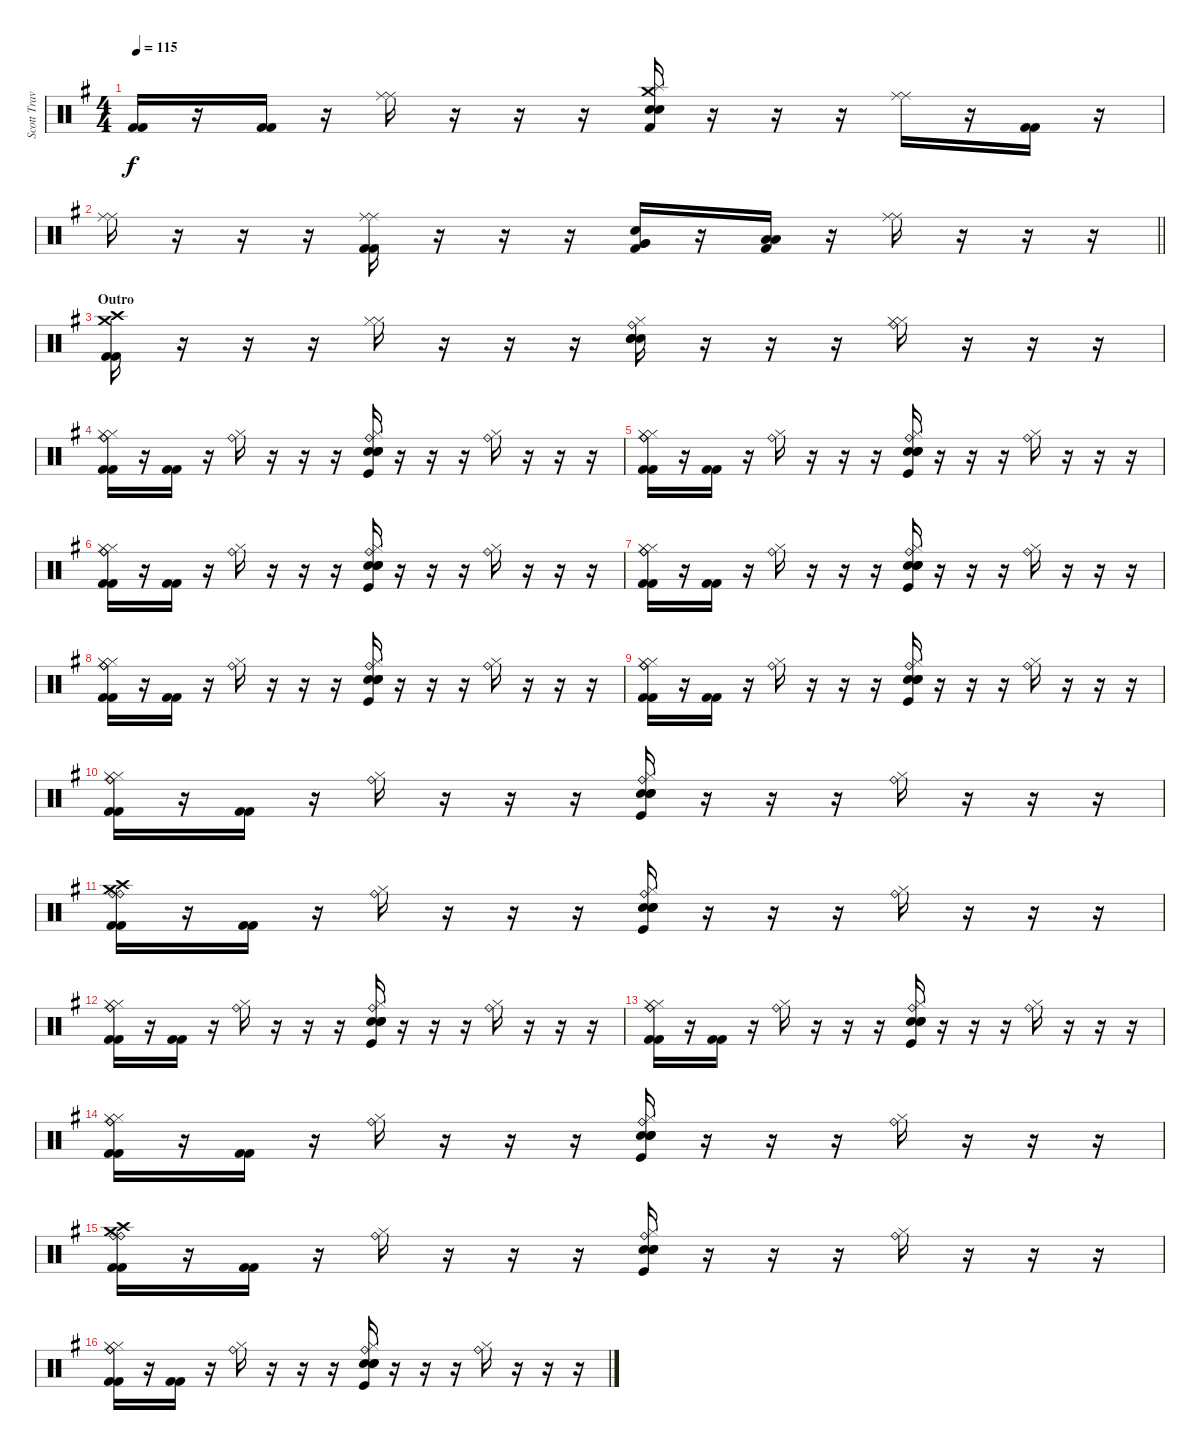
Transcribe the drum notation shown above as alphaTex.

\track ("Scott Travis" "Scott Trav") {instrument percussion}
\staff {score}
\articulation defaults
\ts (4 4)
\tempo 115
\clef neutral
\ks eminor
("Kick (hit) 2" "Kick (hit) 2").16{dy f} r.16 ("Kick (hit) 2" "Kick (hit) 2").16 r.16 ("Ride (middle)" "Ride (middle)").16 r.16 r.16 r.16 ("Crash medium (hit)" "Splash (hit)" "Snare (hit) 2" "Snare (hit) 2" "Kick (hit) 2").16 r.16 r.16 r.16 ("Ride (middle)" "Ride (middle)").16 r.16 ("Kick (hit) 2" "Kick (hit) 2").16 r.16 |
\barLineRight lightlight
("Ride (middle)" "Ride (middle)").16 r.16 r.16 r.16 ("Ride (middle)" "Ride (middle)" "Kick (hit) 2" "Kick (hit) 2").16 r.16 r.16 r.16 ("Snare (hit) 2" "Very Low Tom (hit)" "Very Low Tom (hit)" "Kick (hit) 2").16 r.16 ("Low Floor Tom (hit)" "Low Floor Tom (hit)" "Kick (hit) 2").16 r.16 ("Ride (middle)" "Ride (middle)").16 r.16 r.16 r.16 |
\section ("" "Outro")
("Crash medium (hit)" "Crash high (hit)" "Kick (hit) 2" "Kick (hit) 2").16 r.16 r.16 r.16 ("Hi-Hat (closed)" "Hi-Hat (closed)").16 r.16 r.16 r.16 ("Ride (bell)" "Hi-Hat (closed)" "Snare (hit) 2" "Snare (hit) 2" "Snare (hit) 2").16 r.16 r.16 r.16 ("Hi-Hat (closed)" "Hi-Hat (closed)" "Ride (bell)").16 r.16 r.16 r.16 |
("Hi-Hat (closed)" "Hi-Hat (closed)" "Ride (bell)" "Ride (bell)" "Kick (hit) 2" "Kick (hit) 2").16 r.16 ("Kick (hit) 2" "Kick (hit) 2").16 r.16 ("Hi-Hat (closed)" "Ride (bell)").16 r.16 r.16 r.16 ("Hi-Hat (closed)" "Ride (bell)" "Snare (hit) 2" "Snare (hit) 2" "Snare (hit) 2" "Kick (hit)").16 r.16 r.16 r.16 ("Hi-Hat (closed)" "Ride (bell)").16 r.16 r.16 r.16 |
("Hi-Hat (closed)" "Hi-Hat (closed)" "Ride (bell)" "Ride (bell)" "Kick (hit) 2" "Kick (hit) 2").16 r.16 ("Kick (hit) 2" "Kick (hit) 2").16 r.16 ("Hi-Hat (closed)" "Ride (bell)").16 r.16 r.16 r.16 ("Hi-Hat (closed)" "Ride (bell)" "Snare (hit) 2" "Snare (hit) 2" "Snare (hit) 2" "Kick (hit)").16 r.16 r.16 r.16 ("Hi-Hat (closed)" "Ride (bell)").16 r.16 r.16 r.16 |
("Hi-Hat (closed)" "Hi-Hat (closed)" "Ride (bell)" "Ride (bell)" "Kick (hit) 2" "Kick (hit) 2").16 r.16 ("Kick (hit) 2" "Kick (hit) 2").16 r.16 ("Hi-Hat (closed)" "Ride (bell)").16 r.16 r.16 r.16 ("Hi-Hat (closed)" "Ride (bell)" "Snare (hit) 2" "Snare (hit) 2" "Snare (hit) 2" "Kick (hit)").16 r.16 r.16 r.16 ("Hi-Hat (closed)" "Ride (bell)").16 r.16 r.16 r.16 |
("Hi-Hat (closed)" "Hi-Hat (closed)" "Ride (bell)" "Ride (bell)" "Kick (hit) 2" "Kick (hit) 2").16 r.16 ("Kick (hit) 2" "Kick (hit) 2").16 r.16 ("Hi-Hat (closed)" "Ride (bell)").16 r.16 r.16 r.16 ("Hi-Hat (closed)" "Ride (bell)" "Snare (hit) 2" "Snare (hit) 2" "Snare (hit) 2" "Kick (hit)").16 r.16 r.16 r.16 ("Hi-Hat (closed)" "Ride (bell)").16 r.16 r.16 r.16 |
("Hi-Hat (closed)" "Hi-Hat (closed)" "Ride (bell)" "Ride (bell)" "Kick (hit) 2" "Kick (hit) 2").16 r.16 ("Kick (hit) 2" "Kick (hit) 2").16 r.16 ("Hi-Hat (closed)" "Ride (bell)").16 r.16 r.16 r.16 ("Hi-Hat (closed)" "Ride (bell)" "Snare (hit) 2" "Snare (hit) 2" "Snare (hit) 2" "Kick (hit)").16 r.16 r.16 r.16 ("Hi-Hat (closed)" "Ride (bell)").16 r.16 r.16 r.16 |
("Hi-Hat (closed)" "Hi-Hat (closed)" "Ride (bell)" "Ride (bell)" "Kick (hit) 2" "Kick (hit) 2").16 r.16 ("Kick (hit) 2" "Kick (hit) 2").16 r.16 ("Hi-Hat (closed)" "Ride (bell)").16 r.16 r.16 r.16 ("Hi-Hat (closed)" "Ride (bell)" "Snare (hit) 2" "Snare (hit) 2" "Snare (hit) 2" "Kick (hit)").16 r.16 r.16 r.16 ("Hi-Hat (closed)" "Ride (bell)").16 r.16 r.16 r.16 |
("Hi-Hat (closed)" "Hi-Hat (closed)" "Ride (bell)" "Ride (bell)" "Kick (hit) 2" "Kick (hit) 2").16 r.16 ("Kick (hit) 2" "Kick (hit) 2").16 r.16 ("Hi-Hat (closed)" "Ride (bell)").16 r.16 r.16 r.16 ("Hi-Hat (closed)" "Ride (bell)" "Snare (hit) 2" "Snare (hit) 2" "Snare (hit) 2" "Kick (hit)").16 r.16 r.16 r.16 ("Hi-Hat (closed)" "Ride (bell)").16 r.16 r.16 r.16 |
("Crash medium (hit)" "Crash high (hit)" "Ride (bell)" "Ride (bell)" "Kick (hit) 2" "Kick (hit) 2").16 r.16 ("Kick (hit) 2" "Kick (hit) 2").16 r.16 ("Hi-Hat (closed)" "Ride (bell)").16 r.16 r.16 r.16 ("Hi-Hat (closed)" "Ride (bell)" "Snare (hit) 2" "Snare (hit) 2" "Snare (hit) 2" "Kick (hit)").16 r.16 r.16 r.16 ("Hi-Hat (closed)" "Ride (bell)").16 r.16 r.16 r.16 |
("Hi-Hat (closed)" "Hi-Hat (closed)" "Ride (bell)" "Ride (bell)" "Kick (hit) 2" "Kick (hit) 2").16 r.16 ("Kick (hit) 2" "Kick (hit) 2").16 r.16 ("Hi-Hat (closed)" "Ride (bell)").16 r.16 r.16 r.16 ("Hi-Hat (closed)" "Ride (bell)" "Snare (hit) 2" "Snare (hit) 2" "Snare (hit) 2" "Kick (hit)").16 r.16 r.16 r.16 ("Hi-Hat (closed)" "Ride (bell)").16 r.16 r.16 r.16 |
("Hi-Hat (closed)" "Hi-Hat (closed)" "Ride (bell)" "Ride (bell)" "Kick (hit) 2" "Kick (hit) 2").16 r.16 ("Kick (hit) 2" "Kick (hit) 2").16 r.16 ("Hi-Hat (closed)" "Ride (bell)").16 r.16 r.16 r.16 ("Hi-Hat (closed)" "Ride (bell)" "Snare (hit) 2" "Snare (hit) 2" "Snare (hit) 2" "Kick (hit)").16 r.16 r.16 r.16 ("Hi-Hat (closed)" "Ride (bell)").16 r.16 r.16 r.16 |
("Hi-Hat (closed)" "Hi-Hat (closed)" "Ride (bell)" "Ride (bell)" "Kick (hit) 2" "Kick (hit) 2").16 r.16 ("Kick (hit) 2" "Kick (hit) 2").16 r.16 ("Hi-Hat (closed)" "Ride (bell)").16 r.16 r.16 r.16 ("Hi-Hat (closed)" "Ride (bell)" "Snare (hit) 2" "Snare (hit) 2" "Snare (hit) 2" "Kick (hit)").16 r.16 r.16 r.16 ("Hi-Hat (closed)" "Ride (bell)").16 r.16 r.16 r.16 |
("Crash medium (hit)" "Crash high (hit)" "Ride (bell)" "Ride (bell)" "Kick (hit) 2" "Kick (hit) 2").16 r.16 ("Kick (hit) 2" "Kick (hit) 2").16 r.16 ("Hi-Hat (closed)" "Ride (bell)").16 r.16 r.16 r.16 ("Hi-Hat (closed)" "Ride (bell)" "Snare (hit) 2" "Snare (hit) 2" "Snare (hit) 2" "Kick (hit)").16 r.16 r.16 r.16 ("Hi-Hat (closed)" "Ride (bell)").16 r.16 r.16 r.16 |
("Hi-Hat (closed)" "Hi-Hat (closed)" "Ride (bell)" "Ride (bell)" "Kick (hit) 2" "Kick (hit) 2").16 r.16 ("Kick (hit) 2" "Kick (hit) 2").16 r.16 ("Hi-Hat (closed)" "Ride (bell)").16 r.16 r.16 r.16 ("Hi-Hat (closed)" "Ride (bell)" "Snare (hit) 2" "Snare (hit) 2" "Snare (hit) 2" "Kick (hit)").16 r.16 r.16 r.16 ("Hi-Hat (closed)" "Ride (bell)").16 r.16 r.16 r.16
